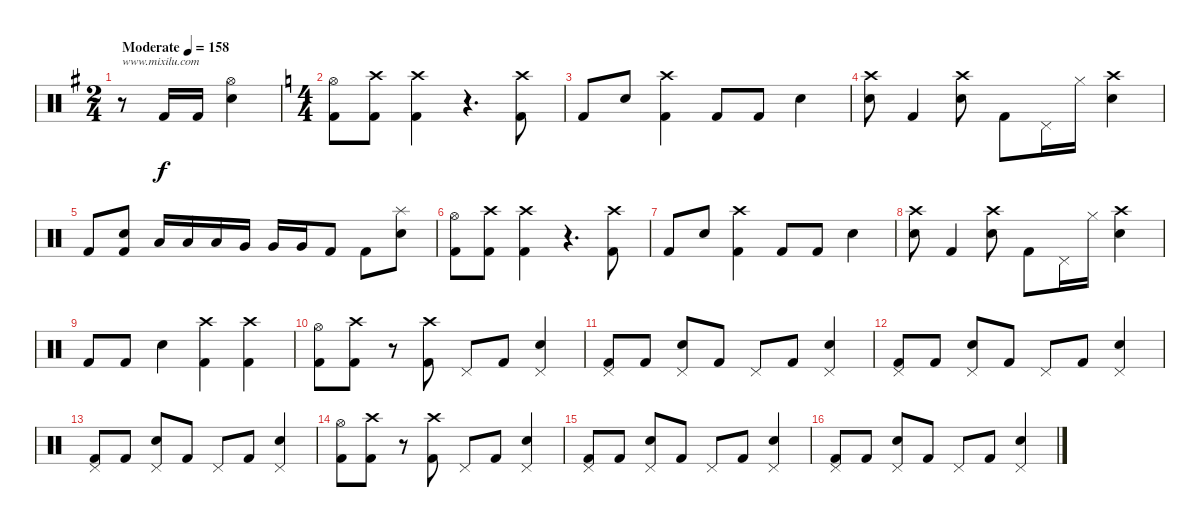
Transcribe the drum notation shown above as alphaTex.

\track "" {instrument percussion}
\staff {score}
\articulation defaults
\ts (2 4)
\tempo (158 "Moderate")
\clef neutral
\ks g
r.8{txt "www.mixilu.com" dy f} "Kick (hit) 2".16 "Kick (hit) 2".16 ("Hi-Hat (open)" "Electric Snare (hit)").4 |
\ts (4 4)
\ks c
("Hi-Hat (open)" "Kick (hit) 2").8 ("Crash high (hit)" "Kick (hit) 2").8 ("Crash high (hit)" "Kick (hit) 2").4 r.4{d} ("Crash high (hit)" "Kick (hit) 2").8 |
"Kick (hit) 2".8 "Electric Snare (hit)".8 ("Crash high (hit)" "Kick (hit) 2").4 "Kick (hit) 2".8 "Kick (hit) 2".8 "Electric Snare (hit)".4 |
("Crash high (hit)" "Electric Snare (hit)").8 "Kick (hit) 2".4 ("Crash high (hit)" "Electric Snare (hit)").8 "Kick (hit) 2".8 "Pedal Hi-Hat (hit)".16 "Hi-Hat (closed)".16 ("Crash high (hit)" "Electric Snare (hit)").4 |
"Kick (hit) 2".8 ("Electric Snare (hit)" "Kick (hit) 2").8 "Low Floor Tom (hit)".16 "Low Floor Tom (hit)".16 "Low Floor Tom (hit)".16 "Very Low Tom (hit)".16 "Very Low Tom (hit)".16 "Very Low Tom (hit)".16 "Kick (hit) 2".8 "Kick (hit) 2".8 ("Splash (hit)" "Electric Snare (hit)").8 |
("Hi-Hat (open)" "Kick (hit) 2").8 ("Crash high (hit)" "Kick (hit) 2").8 ("Crash high (hit)" "Kick (hit) 2").4 r.4{d} ("Crash high (hit)" "Kick (hit) 2").8 |
"Kick (hit) 2".8 "Electric Snare (hit)".8 ("Crash high (hit)" "Kick (hit) 2").4 "Kick (hit) 2".8 "Kick (hit) 2".8 "Electric Snare (hit)".4 |
("Crash high (hit)" "Electric Snare (hit)").8 "Kick (hit) 2".4 ("Crash high (hit)" "Electric Snare (hit)").8 "Kick (hit) 2".8 "Pedal Hi-Hat (hit)".16 "Hi-Hat (closed)".16 ("Crash high (hit)" "Electric Snare (hit)").4 |
"Kick (hit) 2".8 "Kick (hit) 2".8 "Electric Snare (hit)".4 ("Crash high (hit)" "Kick (hit) 2").4 ("Crash high (hit)" "Kick (hit) 2").4 |
("Hi-Hat (open)" "Kick (hit) 2").8 ("Crash high (hit)" "Kick (hit) 2").8 r.8 ("Crash high (hit)" "Kick (hit) 2").8 "Pedal Hi-Hat (hit)".8 "Kick (hit) 2".8 ("Pedal Hi-Hat (hit)" "Electric Snare (hit)").4 |
("Pedal Hi-Hat (hit)" "Kick (hit) 2").8 "Kick (hit) 2".8 ("Pedal Hi-Hat (hit)" "Electric Snare (hit)").8 "Kick (hit) 2".8 "Pedal Hi-Hat (hit)".8 "Kick (hit) 2".8 ("Pedal Hi-Hat (hit)" "Electric Snare (hit)").4 |
("Pedal Hi-Hat (hit)" "Kick (hit) 2").8 "Kick (hit) 2".8 ("Pedal Hi-Hat (hit)" "Electric Snare (hit)").8 "Kick (hit) 2".8 "Pedal Hi-Hat (hit)".8 "Kick (hit) 2".8 ("Pedal Hi-Hat (hit)" "Electric Snare (hit)").4 |
("Pedal Hi-Hat (hit)" "Kick (hit) 2").8 "Kick (hit) 2".8 ("Pedal Hi-Hat (hit)" "Electric Snare (hit)").8 "Kick (hit) 2".8 "Pedal Hi-Hat (hit)".8 "Kick (hit) 2".8 ("Pedal Hi-Hat (hit)" "Electric Snare (hit)").4 |
("Hi-Hat (open)" "Kick (hit) 2").8 ("Crash high (hit)" "Kick (hit) 2").8 r.8 ("Crash high (hit)" "Kick (hit) 2").8 "Pedal Hi-Hat (hit)".8 "Kick (hit) 2".8 ("Pedal Hi-Hat (hit)" "Electric Snare (hit)").4 |
("Pedal Hi-Hat (hit)" "Kick (hit) 2").8 "Kick (hit) 2".8 ("Pedal Hi-Hat (hit)" "Electric Snare (hit)").8 "Kick (hit) 2".8 "Pedal Hi-Hat (hit)".8 "Kick (hit) 2".8 ("Pedal Hi-Hat (hit)" "Electric Snare (hit)").4 |
("Pedal Hi-Hat (hit)" "Kick (hit) 2").8 "Kick (hit) 2".8 ("Pedal Hi-Hat (hit)" "Electric Snare (hit)").8 "Kick (hit) 2".8 "Pedal Hi-Hat (hit)".8 "Kick (hit) 2".8 ("Pedal Hi-Hat (hit)" "Electric Snare (hit)").4
